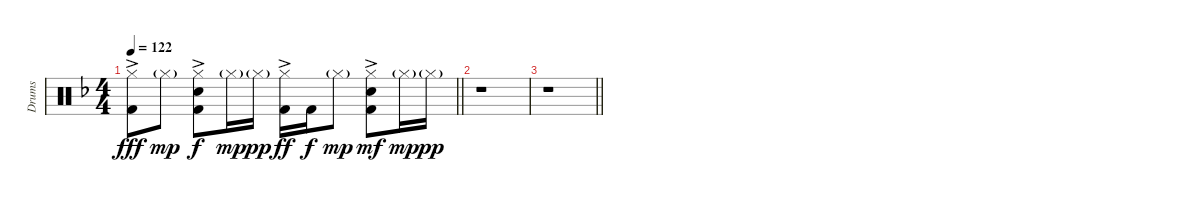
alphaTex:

\track ("Drums" "Drums") {instrument percussion}
\staff {score}
\articulation defaults
\ts (4 4)
\tempo 122
\clef neutral
\barLineRight lightlight
\ks f
("Kick (hit) 2"{ac} "Hi-Hat (closed)").8{dy fff} "Hi-Hat (closed)"{g}.8{dy mp} ("Kick (hit) 2" "Snare (hit) 2"{ac} "Hi-Hat (closed)").8{dy f} "Hi-Hat (closed)"{g}.16{dy mp} "Hi-Hat (closed)"{g}.16{dy pp} ("Kick (hit) 2"{ac} "Hi-Hat (closed)").16{dy ff} "Kick (hit) 2".16{dy f} "Hi-Hat (closed)"{g}.8{dy mp} ("Kick (hit) 2" "Snare (hit) 2"{ac} "Hi-Hat (closed)").8{dy mf} "Hi-Hat (closed)"{g}.16{dy mp} "Hi-Hat (closed)"{g}.16{dy pp} |
r.1 |
\barLineRight lightlight
r.1
